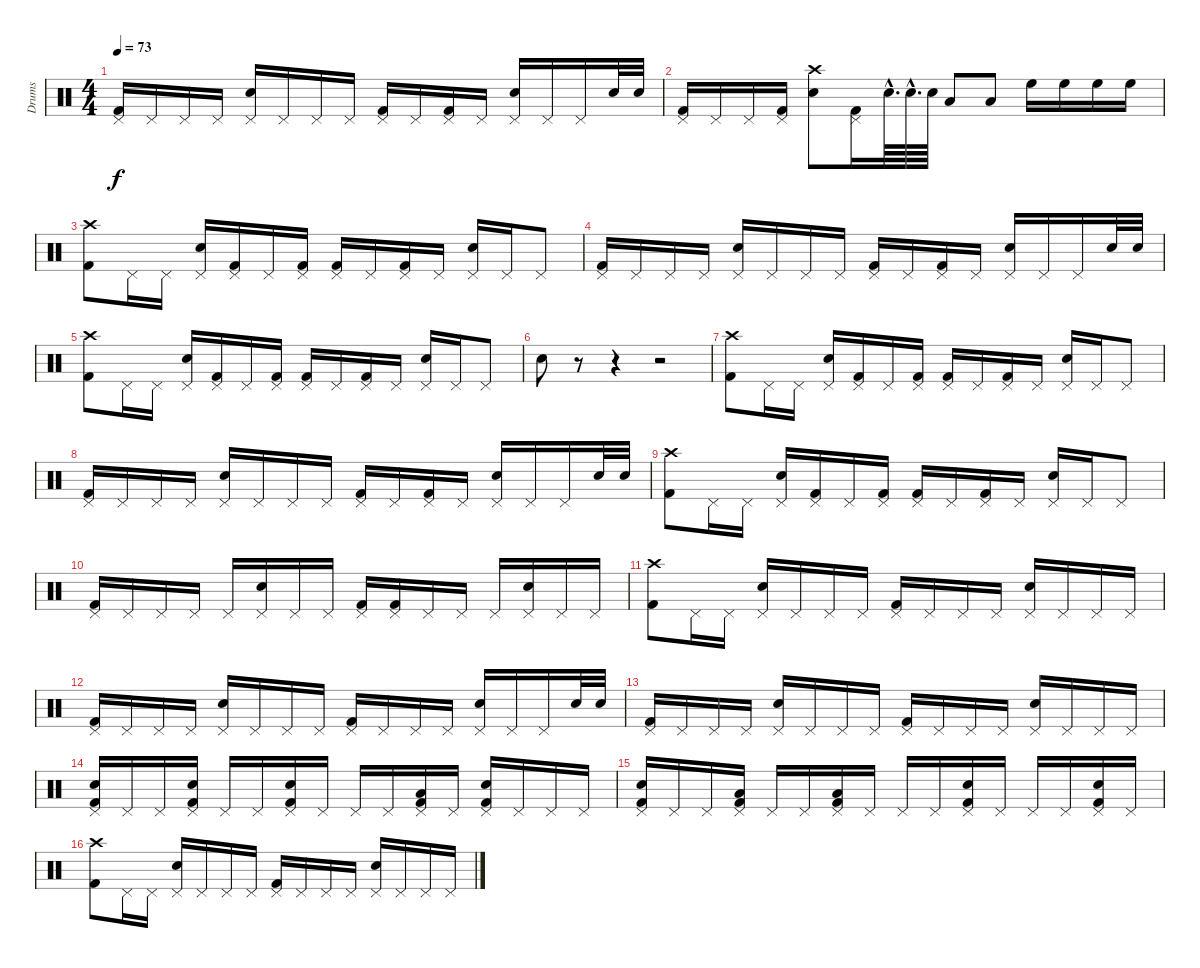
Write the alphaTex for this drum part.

\track ("Drums" "Drums") {instrument percussion}
\staff {score}
\articulation defaults
\ts (4 4)
\tempo 73
\clef neutral
\ks c
("Pedal Hi-Hat (hit)" "Kick (hit) 2").16{dy f} "Pedal Hi-Hat (hit)".16 "Pedal Hi-Hat (hit)".16 "Pedal Hi-Hat (hit)".16 ("Pedal Hi-Hat (hit)" "Snare (hit) 2").16 "Pedal Hi-Hat (hit)".16 "Pedal Hi-Hat (hit)".16 "Pedal Hi-Hat (hit)".16 ("Pedal Hi-Hat (hit)" "Kick (hit) 2").16 "Pedal Hi-Hat (hit)".16 ("Pedal Hi-Hat (hit)" "Kick (hit) 2").16 "Pedal Hi-Hat (hit)".16 ("Pedal Hi-Hat (hit)" "Snare (hit) 2").16 "Pedal Hi-Hat (hit)".16 "Pedal Hi-Hat (hit)".16 "Snare (hit) 2".32 "Snare (hit) 2".32 |
("Pedal Hi-Hat (hit)" "Kick (hit) 2").16 "Pedal Hi-Hat (hit)".16 "Pedal Hi-Hat (hit)".16 ("Pedal Hi-Hat (hit)" "Kick (hit) 2").16 ("Crash high (hit)" "Snare (hit) 2").8 ("Pedal Hi-Hat (hit)" "Kick (hit) 2").16 "Snare (hit) 2"{hac}.64{d} "Snare (hit) 2"{hac}.64{d} "Snare (hit) 2".64 "Low Tom (hit)".8 "Low Tom (hit)".8 "High Floor Tom (hit)".16 "High Floor Tom (hit)".16 "High Floor Tom (hit)".16 "High Floor Tom (hit)".16 |
("Crash high (hit)" "Kick (hit) 2").8 "Pedal Hi-Hat (hit)".16 "Pedal Hi-Hat (hit)".16 ("Pedal Hi-Hat (hit)" "Snare (hit) 2").16 ("Pedal Hi-Hat (hit)" "Kick (hit) 2").16 "Pedal Hi-Hat (hit)".16 ("Pedal Hi-Hat (hit)" "Kick (hit) 2").16 ("Pedal Hi-Hat (hit)" "Kick (hit) 2").16 "Pedal Hi-Hat (hit)".16 ("Pedal Hi-Hat (hit)" "Kick (hit) 2").16 "Pedal Hi-Hat (hit)".16 ("Pedal Hi-Hat (hit)" "Snare (hit) 2").16 "Pedal Hi-Hat (hit)".16 "Pedal Hi-Hat (hit)".8 |
("Pedal Hi-Hat (hit)" "Kick (hit) 2").16 "Pedal Hi-Hat (hit)".16 "Pedal Hi-Hat (hit)".16 "Pedal Hi-Hat (hit)".16 ("Pedal Hi-Hat (hit)" "Snare (hit) 2").16 "Pedal Hi-Hat (hit)".16 "Pedal Hi-Hat (hit)".16 "Pedal Hi-Hat (hit)".16 ("Pedal Hi-Hat (hit)" "Kick (hit) 2").16 "Pedal Hi-Hat (hit)".16 ("Pedal Hi-Hat (hit)" "Kick (hit) 2").16 "Pedal Hi-Hat (hit)".16 ("Pedal Hi-Hat (hit)" "Snare (hit) 2").16 "Pedal Hi-Hat (hit)".16 "Pedal Hi-Hat (hit)".16 "Snare (hit) 2".32 "Snare (hit) 2".32 |
("Crash high (hit)" "Kick (hit) 2").8 "Pedal Hi-Hat (hit)".16 "Pedal Hi-Hat (hit)".16 ("Pedal Hi-Hat (hit)" "Snare (hit) 2").16 ("Pedal Hi-Hat (hit)" "Kick (hit) 2").16 "Pedal Hi-Hat (hit)".16 ("Pedal Hi-Hat (hit)" "Kick (hit) 2").16 ("Pedal Hi-Hat (hit)" "Kick (hit) 2").16 "Pedal Hi-Hat (hit)".16 ("Pedal Hi-Hat (hit)" "Kick (hit) 2").16 "Pedal Hi-Hat (hit)".16 ("Pedal Hi-Hat (hit)" "Snare (hit) 2").16 "Pedal Hi-Hat (hit)".16 "Pedal Hi-Hat (hit)".8 |
"Snare (hit) 2".8 r.8 r.4 r.2 |
("Crash high (hit)" "Kick (hit) 2").8 "Pedal Hi-Hat (hit)".16 "Pedal Hi-Hat (hit)".16 ("Pedal Hi-Hat (hit)" "Snare (hit) 2").16 ("Pedal Hi-Hat (hit)" "Kick (hit) 2").16 "Pedal Hi-Hat (hit)".16 ("Pedal Hi-Hat (hit)" "Kick (hit) 2").16 ("Pedal Hi-Hat (hit)" "Kick (hit) 2").16 "Pedal Hi-Hat (hit)".16 ("Pedal Hi-Hat (hit)" "Kick (hit) 2").16 "Pedal Hi-Hat (hit)".16 ("Pedal Hi-Hat (hit)" "Snare (hit) 2").16 "Pedal Hi-Hat (hit)".16 "Pedal Hi-Hat (hit)".8 |
("Pedal Hi-Hat (hit)" "Kick (hit) 2").16 "Pedal Hi-Hat (hit)".16 "Pedal Hi-Hat (hit)".16 "Pedal Hi-Hat (hit)".16 ("Pedal Hi-Hat (hit)" "Snare (hit) 2").16 "Pedal Hi-Hat (hit)".16 "Pedal Hi-Hat (hit)".16 "Pedal Hi-Hat (hit)".16 ("Pedal Hi-Hat (hit)" "Kick (hit) 2").16 "Pedal Hi-Hat (hit)".16 ("Pedal Hi-Hat (hit)" "Kick (hit) 2").16 "Pedal Hi-Hat (hit)".16 ("Pedal Hi-Hat (hit)" "Snare (hit) 2").16 "Pedal Hi-Hat (hit)".16 "Pedal Hi-Hat (hit)".16 "Snare (hit) 2".32 "Snare (hit) 2".32 |
("Crash high (hit)" "Kick (hit) 2").8 "Pedal Hi-Hat (hit)".16 "Pedal Hi-Hat (hit)".16 ("Pedal Hi-Hat (hit)" "Snare (hit) 2").16 ("Pedal Hi-Hat (hit)" "Kick (hit) 2").16 "Pedal Hi-Hat (hit)".16 ("Pedal Hi-Hat (hit)" "Kick (hit) 2").16 ("Pedal Hi-Hat (hit)" "Kick (hit) 2").16 "Pedal Hi-Hat (hit)".16 ("Pedal Hi-Hat (hit)" "Kick (hit) 2").16 "Pedal Hi-Hat (hit)".16 ("Pedal Hi-Hat (hit)" "Snare (hit) 2").16 "Pedal Hi-Hat (hit)".16 "Pedal Hi-Hat (hit)".8 |
("Pedal Hi-Hat (hit)" "Kick (hit) 2").16 "Pedal Hi-Hat (hit)".16 "Pedal Hi-Hat (hit)".16 "Pedal Hi-Hat (hit)".16 "Pedal Hi-Hat (hit)".16 ("Pedal Hi-Hat (hit)" "Snare (hit) 2").16 "Pedal Hi-Hat (hit)".16 "Pedal Hi-Hat (hit)".16 ("Pedal Hi-Hat (hit)" "Kick (hit) 2").16 ("Pedal Hi-Hat (hit)" "Kick (hit) 2").16 "Pedal Hi-Hat (hit)".16 "Pedal Hi-Hat (hit)".16 "Pedal Hi-Hat (hit)".16 ("Pedal Hi-Hat (hit)" "Snare (hit) 2").16 "Pedal Hi-Hat (hit)".16 "Pedal Hi-Hat (hit)".16 |
("Crash high (hit)" "Kick (hit) 2").8 "Pedal Hi-Hat (hit)".16 "Pedal Hi-Hat (hit)".16 ("Pedal Hi-Hat (hit)" "Snare (hit) 2").16 "Pedal Hi-Hat (hit)".16 "Pedal Hi-Hat (hit)".16 "Pedal Hi-Hat (hit)".16 ("Pedal Hi-Hat (hit)" "Kick (hit) 2").16 "Pedal Hi-Hat (hit)".16 "Pedal Hi-Hat (hit)".16 "Pedal Hi-Hat (hit)".16 ("Pedal Hi-Hat (hit)" "Snare (hit) 2").16 "Pedal Hi-Hat (hit)".16 "Pedal Hi-Hat (hit)".16 "Pedal Hi-Hat (hit)".16 |
("Pedal Hi-Hat (hit)" "Kick (hit) 2").16 "Pedal Hi-Hat (hit)".16 "Pedal Hi-Hat (hit)".16 "Pedal Hi-Hat (hit)".16 ("Pedal Hi-Hat (hit)" "Snare (hit) 2").16 "Pedal Hi-Hat (hit)".16 "Pedal Hi-Hat (hit)".16 "Pedal Hi-Hat (hit)".16 ("Pedal Hi-Hat (hit)" "Kick (hit) 2").16 "Pedal Hi-Hat (hit)".16 "Pedal Hi-Hat (hit)".16 "Pedal Hi-Hat (hit)".16 ("Pedal Hi-Hat (hit)" "Snare (hit) 2").16 "Pedal Hi-Hat (hit)".16 "Pedal Hi-Hat (hit)".16 "Snare (hit) 2".32 "Snare (hit) 2".32 |
("Pedal Hi-Hat (hit)" "Kick (hit) 2").16 "Pedal Hi-Hat (hit)".16 "Pedal Hi-Hat (hit)".16 "Pedal Hi-Hat (hit)".16 ("Pedal Hi-Hat (hit)" "Snare (hit) 2").16 "Pedal Hi-Hat (hit)".16 "Pedal Hi-Hat (hit)".16 "Pedal Hi-Hat (hit)".16 ("Pedal Hi-Hat (hit)" "Kick (hit) 2").16 "Pedal Hi-Hat (hit)".16 "Pedal Hi-Hat (hit)".16 "Pedal Hi-Hat (hit)".16 ("Pedal Hi-Hat (hit)" "Snare (hit) 2").16 "Pedal Hi-Hat (hit)".16 "Pedal Hi-Hat (hit)".16 "Pedal Hi-Hat (hit)".16 |
("Pedal Hi-Hat (hit)" "Snare (hit) 2" "Kick (hit) 2").16 "Pedal Hi-Hat (hit)".16 "Pedal Hi-Hat (hit)".16 ("Pedal Hi-Hat (hit)" "Snare (hit) 2" "Kick (hit) 2").16 "Pedal Hi-Hat (hit)".16 "Pedal Hi-Hat (hit)".16 ("Pedal Hi-Hat (hit)" "Snare (hit) 2" "Kick (hit) 2").16 "Pedal Hi-Hat (hit)".16 "Pedal Hi-Hat (hit)".16 "Pedal Hi-Hat (hit)".16 ("Pedal Hi-Hat (hit)" "Low Floor Tom (hit)" "Kick (hit) 2").16 "Pedal Hi-Hat (hit)".16 ("Pedal Hi-Hat (hit)" "Snare (hit) 2" "Kick (hit) 2").16 "Pedal Hi-Hat (hit)".16 "Pedal Hi-Hat (hit)".16 "Pedal Hi-Hat (hit)".16 |
("Pedal Hi-Hat (hit)" "Snare (hit) 2" "Kick (hit) 2").16 "Pedal Hi-Hat (hit)".16 "Pedal Hi-Hat (hit)".16 ("Pedal Hi-Hat (hit)" "Low Floor Tom (hit)" "Kick (hit) 2").16 "Pedal Hi-Hat (hit)".16 "Pedal Hi-Hat (hit)".16 ("Pedal Hi-Hat (hit)" "Low Floor Tom (hit)" "Kick (hit) 2").16 "Pedal Hi-Hat (hit)".16 "Pedal Hi-Hat (hit)".16 "Pedal Hi-Hat (hit)".16 ("Pedal Hi-Hat (hit)" "Snare (hit) 2" "Kick (hit) 2").16 "Pedal Hi-Hat (hit)".16 "Pedal Hi-Hat (hit)".16 "Pedal Hi-Hat (hit)".16 ("Pedal Hi-Hat (hit)" "Snare (hit) 2" "Kick (hit) 2").16 "Pedal Hi-Hat (hit)".16 |
("Crash high (hit)" "Kick (hit) 2").8 "Pedal Hi-Hat (hit)".16 "Pedal Hi-Hat (hit)".16 ("Pedal Hi-Hat (hit)" "Snare (hit) 2").16 "Pedal Hi-Hat (hit)".16 "Pedal Hi-Hat (hit)".16 "Pedal Hi-Hat (hit)".16 ("Pedal Hi-Hat (hit)" "Kick (hit) 2").16 "Pedal Hi-Hat (hit)".16 "Pedal Hi-Hat (hit)".16 "Pedal Hi-Hat (hit)".16 ("Pedal Hi-Hat (hit)" "Snare (hit) 2").16 "Pedal Hi-Hat (hit)".16 "Pedal Hi-Hat (hit)".16 "Pedal Hi-Hat (hit)".16
